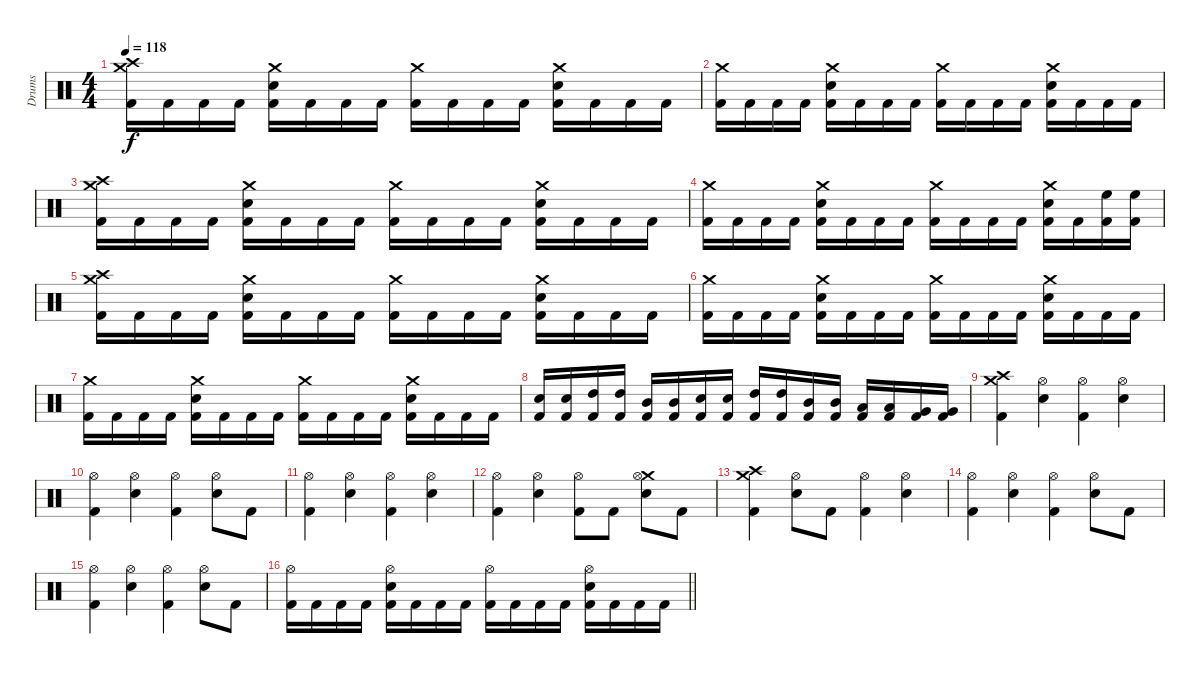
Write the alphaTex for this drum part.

\track ("Drums" "Drums") {instrument percussion}
\staff {score}
\articulation defaults
\ts (4 4)
\tempo 118
\clef neutral
\ks c
("Crash medium (hit)" "Crash high (hit)" "Kick (hit) 2").16{dy f} "Kick (hit) 2".16 "Kick (hit) 2".16 "Kick (hit) 2".16 ("Crash medium (hit)" "Electric Snare (hit)" "Kick (hit) 2").16 "Kick (hit) 2".16 "Kick (hit) 2".16 "Kick (hit) 2".16 ("Crash medium (hit)" "Kick (hit) 2").16 "Kick (hit) 2".16 "Kick (hit) 2".16 "Kick (hit) 2".16 ("Crash medium (hit)" "Electric Snare (hit)" "Kick (hit) 2").16 "Kick (hit) 2".16 "Kick (hit) 2".16 "Kick (hit) 2".16 |
("Crash medium (hit)" "Kick (hit) 2").16 "Kick (hit) 2".16 "Kick (hit) 2".16 "Kick (hit) 2".16 ("Crash medium (hit)" "Electric Snare (hit)" "Kick (hit) 2").16 "Kick (hit) 2".16 "Kick (hit) 2".16 "Kick (hit) 2".16 ("Crash medium (hit)" "Kick (hit) 2").16 "Kick (hit) 2".16 "Kick (hit) 2".16 "Kick (hit) 2".16 ("Crash medium (hit)" "Electric Snare (hit)" "Kick (hit) 2").16 "Kick (hit) 2".16 "Kick (hit) 2".16 "Kick (hit) 2".16 |
("Crash medium (hit)" "Crash high (hit)" "Kick (hit) 2").16 "Kick (hit) 2".16 "Kick (hit) 2".16 "Kick (hit) 2".16 ("Crash medium (hit)" "Electric Snare (hit)" "Kick (hit) 2").16 "Kick (hit) 2".16 "Kick (hit) 2".16 "Kick (hit) 2".16 ("Crash medium (hit)" "Kick (hit) 2").16 "Kick (hit) 2".16 "Kick (hit) 2".16 "Kick (hit) 2".16 ("Crash medium (hit)" "Electric Snare (hit)" "Kick (hit) 2").16 "Kick (hit) 2".16 "Kick (hit) 2".16 "Kick (hit) 2".16 |
("Crash medium (hit)" "Kick (hit) 2").16 "Kick (hit) 2".16 "Kick (hit) 2".16 "Kick (hit) 2".16 ("Crash medium (hit)" "Electric Snare (hit)" "Kick (hit) 2").16 "Kick (hit) 2".16 "Kick (hit) 2".16 "Kick (hit) 2".16 ("Crash medium (hit)" "Kick (hit) 2").16 "Kick (hit) 2".16 "Kick (hit) 2".16 "Kick (hit) 2".16 ("Crash medium (hit)" "Electric Snare (hit)" "Kick (hit) 2").16 "Kick (hit) 2".16 ("High Floor Tom (hit)" "Kick (hit) 2").16 ("High Floor Tom (hit)" "Kick (hit) 2").16 |
("Crash medium (hit)" "Crash high (hit)" "Kick (hit) 2").16 "Kick (hit) 2".16 "Kick (hit) 2".16 "Kick (hit) 2".16 ("Crash medium (hit)" "Electric Snare (hit)" "Kick (hit) 2").16 "Kick (hit) 2".16 "Kick (hit) 2".16 "Kick (hit) 2".16 ("Crash medium (hit)" "Kick (hit) 2").16 "Kick (hit) 2".16 "Kick (hit) 2".16 "Kick (hit) 2".16 ("Crash medium (hit)" "Electric Snare (hit)" "Kick (hit) 2").16 "Kick (hit) 2".16 "Kick (hit) 2".16 "Kick (hit) 2".16 |
("Crash medium (hit)" "Kick (hit) 2").16 "Kick (hit) 2".16 "Kick (hit) 2".16 "Kick (hit) 2".16 ("Crash medium (hit)" "Electric Snare (hit)" "Kick (hit) 2").16 "Kick (hit) 2".16 "Kick (hit) 2".16 "Kick (hit) 2".16 ("Crash medium (hit)" "Kick (hit) 2").16 "Kick (hit) 2".16 "Kick (hit) 2".16 "Kick (hit) 2".16 ("Crash medium (hit)" "Electric Snare (hit)" "Kick (hit) 2").16 "Kick (hit) 2".16 "Kick (hit) 2".16 "Kick (hit) 2".16 |
("Crash medium (hit)" "Kick (hit) 2").16 "Kick (hit) 2".16 "Kick (hit) 2".16 "Kick (hit) 2".16 ("Crash medium (hit)" "Electric Snare (hit)" "Kick (hit) 2").16 "Kick (hit) 2".16 "Kick (hit) 2".16 "Kick (hit) 2".16 ("Crash medium (hit)" "Kick (hit) 2").16 "Kick (hit) 2".16 "Kick (hit) 2".16 "Kick (hit) 2".16 ("Crash medium (hit)" "Electric Snare (hit)" "Kick (hit) 2").16 "Kick (hit) 2".16 "Kick (hit) 2".16 "Kick (hit) 2".16 |
("Electric Snare (hit)" "Kick (hit) 2").16 ("Electric Snare (hit)" "Kick (hit) 2").16 ("High Tom (hit)" "Kick (hit) 2").16 ("High Tom (hit)" "Kick (hit) 2").16 ("Mid Tom (hit)" "Kick (hit) 2").16 ("Mid Tom (hit)" "Kick (hit) 2").16 ("Electric Snare (hit)" "Kick (hit) 2").16 ("Electric Snare (hit)" "Kick (hit) 2").16 ("High Tom (hit)" "Kick (hit) 2").16 ("High Tom (hit)" "Kick (hit) 2").16 ("Mid Tom (hit)" "Kick (hit) 2").16 ("Mid Tom (hit)" "Kick (hit) 2").16 ("Low Tom (hit)" "Kick (hit) 2").16 ("Low Tom (hit)" "Kick (hit) 2").16 ("Very Low Tom (hit)" "Kick (hit) 2").16 ("Very Low Tom (hit)" "Kick (hit) 2").16 |
("Crash high (hit)" "Crash medium (hit)" "Kick (hit) 2").4 ("Hi-Hat (open)" "Electric Snare (hit)").4 ("Hi-Hat (open)" "Kick (hit) 2").4 ("Hi-Hat (open)" "Electric Snare (hit)").4 |
("Hi-Hat (open)" "Kick (hit) 2").4 ("Hi-Hat (open)" "Electric Snare (hit)").4 ("Hi-Hat (open)" "Kick (hit) 2").4 ("Hi-Hat (open)" "Electric Snare (hit)").8 "Kick (hit) 2".8 |
("Hi-Hat (open)" "Kick (hit) 2").4 ("Hi-Hat (open)" "Electric Snare (hit)").4 ("Hi-Hat (open)" "Kick (hit) 2").4 ("Hi-Hat (open)" "Electric Snare (hit)").4 |
("Hi-Hat (open)" "Kick (hit) 2").4 ("Hi-Hat (open)" "Electric Snare (hit)").4 ("Hi-Hat (open)" "Kick (hit) 2").8 "Kick (hit) 2".8 ("Crash medium (hit)" "Hi-Hat (open)" "Electric Snare (hit)").8 "Kick (hit) 2".8 |
("Crash high (hit)" "Crash medium (hit)" "Kick (hit) 2").4 ("Hi-Hat (open)" "Electric Snare (hit)").8 "Kick (hit) 2".8 ("Hi-Hat (open)" "Kick (hit) 2").4 ("Hi-Hat (open)" "Electric Snare (hit)").4 |
("Hi-Hat (open)" "Kick (hit) 2").4 ("Hi-Hat (open)" "Electric Snare (hit)").4 ("Hi-Hat (open)" "Kick (hit) 2").4 ("Hi-Hat (open)" "Electric Snare (hit)").8 "Kick (hit) 2".8 |
("Hi-Hat (open)" "Kick (hit) 2").4 ("Hi-Hat (open)" "Electric Snare (hit)").4 ("Hi-Hat (open)" "Kick (hit) 2").4 ("Hi-Hat (open)" "Electric Snare (hit)").8 "Kick (hit) 2".8 |
\barLineRight lightlight
("Hi-Hat (open)" "Kick (hit) 2").16 "Kick (hit) 2".16 "Kick (hit) 2".16 "Kick (hit) 2".16 ("Hi-Hat (open)" "Electric Snare (hit)" "Kick (hit) 2").16 "Kick (hit) 2".16 "Kick (hit) 2".16 "Kick (hit) 2".16 ("Hi-Hat (open)" "Kick (hit) 2").16 "Kick (hit) 2".16 "Kick (hit) 2".16 "Kick (hit) 2".16 ("Hi-Hat (open)" "Electric Snare (hit)" "Kick (hit) 2").16 "Kick (hit) 2".16 "Kick (hit) 2".16 "Kick (hit) 2".16
